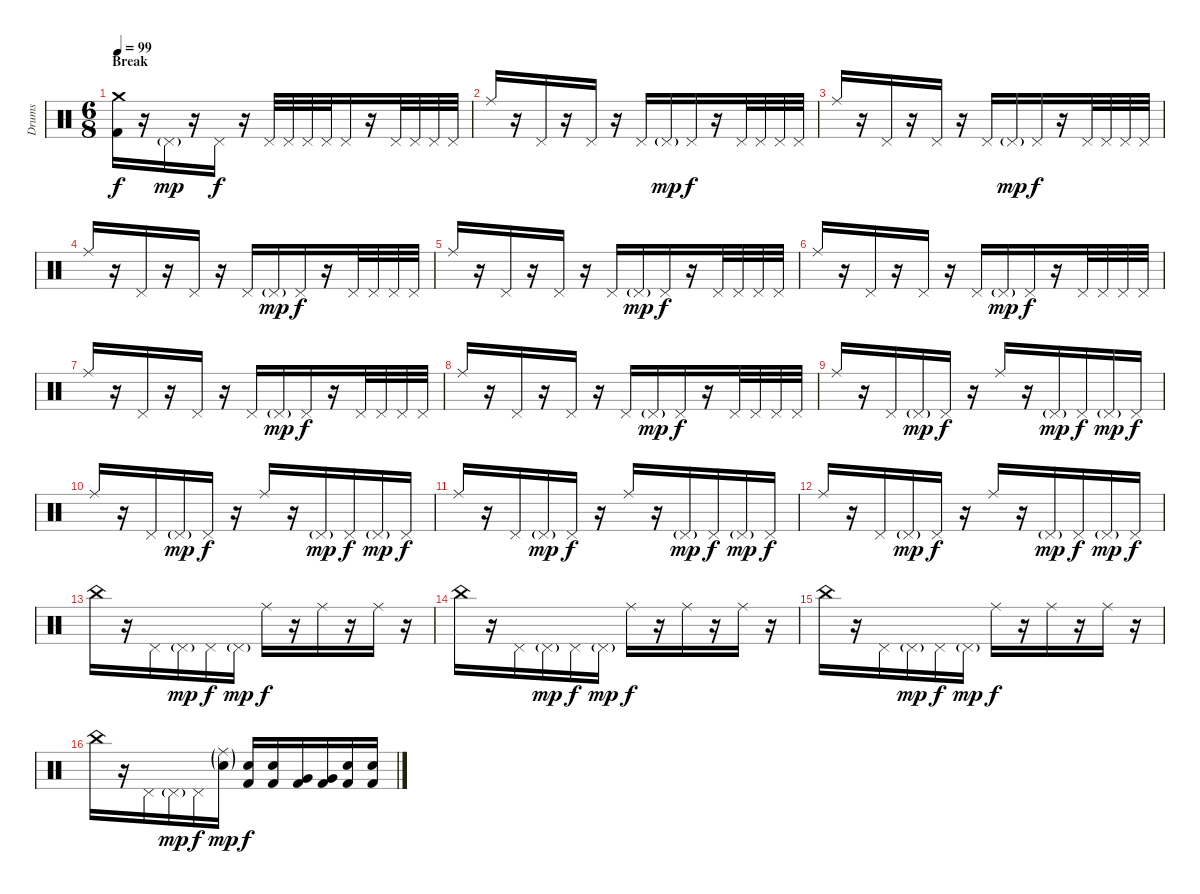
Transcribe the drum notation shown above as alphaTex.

\track ("Drums" "Drums") {instrument percussion}
\staff {score}
\articulation defaults
\ts (6 8)
\section ("" "Break")
\tempo 99
\clef neutral
\ks c
("Crash medium (hit)" "Kick (hit) 2").16{dy f} r.16 "Pedal Hi-Hat (hit)"{g}.16{dy mp} r.16 "Pedal Hi-Hat (hit)".16{dy f} r.16 "Pedal Hi-Hat (hit)".32 "Pedal Hi-Hat (hit)".32 "Pedal Hi-Hat (hit)".32 "Pedal Hi-Hat (hit)".32 "Pedal Hi-Hat (hit)".16 r.16 "Pedal Hi-Hat (hit)".32 "Pedal Hi-Hat (hit)".32 "Pedal Hi-Hat (hit)".32 "Pedal Hi-Hat (hit)".32 |
"Ride (middle)".16 r.16 "Pedal Hi-Hat (hit)".16 r.16 "Pedal Hi-Hat (hit)".16 r.16 "Pedal Hi-Hat (hit)".16 "Pedal Hi-Hat (hit)"{g}.16{dy mp} "Pedal Hi-Hat (hit)".16{dy f} r.16 "Pedal Hi-Hat (hit)".32 "Pedal Hi-Hat (hit)".32 "Pedal Hi-Hat (hit)".32 "Pedal Hi-Hat (hit)".32 |
"Ride (middle)".16 r.16 "Pedal Hi-Hat (hit)".16 r.16 "Pedal Hi-Hat (hit)".16 r.16 "Pedal Hi-Hat (hit)".16 "Pedal Hi-Hat (hit)"{g}.16{dy mp} "Pedal Hi-Hat (hit)".16{dy f} r.16 "Pedal Hi-Hat (hit)".32 "Pedal Hi-Hat (hit)".32 "Pedal Hi-Hat (hit)".32 "Pedal Hi-Hat (hit)".32 |
"Ride (middle)".16 r.16 "Pedal Hi-Hat (hit)".16 r.16 "Pedal Hi-Hat (hit)".16 r.16 "Pedal Hi-Hat (hit)".16 "Pedal Hi-Hat (hit)"{g}.16{dy mp} "Pedal Hi-Hat (hit)".16{dy f} r.16 "Pedal Hi-Hat (hit)".32 "Pedal Hi-Hat (hit)".32 "Pedal Hi-Hat (hit)".32 "Pedal Hi-Hat (hit)".32 |
"Ride (middle)".16 r.16 "Pedal Hi-Hat (hit)".16 r.16 "Pedal Hi-Hat (hit)".16 r.16 "Pedal Hi-Hat (hit)".16 "Pedal Hi-Hat (hit)"{g}.16{dy mp} "Pedal Hi-Hat (hit)".16{dy f} r.16 "Pedal Hi-Hat (hit)".32 "Pedal Hi-Hat (hit)".32 "Pedal Hi-Hat (hit)".32 "Pedal Hi-Hat (hit)".32 |
"Ride (middle)".16 r.16 "Pedal Hi-Hat (hit)".16 r.16 "Pedal Hi-Hat (hit)".16 r.16 "Pedal Hi-Hat (hit)".16 "Pedal Hi-Hat (hit)"{g}.16{dy mp} "Pedal Hi-Hat (hit)".16{dy f} r.16 "Pedal Hi-Hat (hit)".32 "Pedal Hi-Hat (hit)".32 "Pedal Hi-Hat (hit)".32 "Pedal Hi-Hat (hit)".32 |
"Ride (middle)".16 r.16 "Pedal Hi-Hat (hit)".16 r.16 "Pedal Hi-Hat (hit)".16 r.16 "Pedal Hi-Hat (hit)".16 "Pedal Hi-Hat (hit)"{g}.16{dy mp} "Pedal Hi-Hat (hit)".16{dy f} r.16 "Pedal Hi-Hat (hit)".32 "Pedal Hi-Hat (hit)".32 "Pedal Hi-Hat (hit)".32 "Pedal Hi-Hat (hit)".32 |
"Ride (middle)".16 r.16 "Pedal Hi-Hat (hit)".16 r.16 "Pedal Hi-Hat (hit)".16 r.16 "Pedal Hi-Hat (hit)".16 "Pedal Hi-Hat (hit)"{g}.16{dy mp} "Pedal Hi-Hat (hit)".16{dy f} r.16 "Pedal Hi-Hat (hit)".32 "Pedal Hi-Hat (hit)".32 "Pedal Hi-Hat (hit)".32 "Pedal Hi-Hat (hit)".32 |
"Ride (middle)".16 r.16 "Pedal Hi-Hat (hit)".16 "Pedal Hi-Hat (hit)"{g}.16{dy mp} "Pedal Hi-Hat (hit)".16{dy f} r.16 "Ride (middle)".16 r.16 "Pedal Hi-Hat (hit)"{g}.16{dy mp} "Pedal Hi-Hat (hit)".16{dy f} "Pedal Hi-Hat (hit)"{g}.16{dy mp} "Pedal Hi-Hat (hit)".16{dy f} |
"Ride (middle)".16 r.16 "Pedal Hi-Hat (hit)".16 "Pedal Hi-Hat (hit)"{g}.16{dy mp} "Pedal Hi-Hat (hit)".16{dy f} r.16 "Ride (middle)".16 r.16 "Pedal Hi-Hat (hit)"{g}.16{dy mp} "Pedal Hi-Hat (hit)".16{dy f} "Pedal Hi-Hat (hit)"{g}.16{dy mp} "Pedal Hi-Hat (hit)".16{dy f} |
"Ride (middle)".16 r.16 "Pedal Hi-Hat (hit)".16 "Pedal Hi-Hat (hit)"{g}.16{dy mp} "Pedal Hi-Hat (hit)".16{dy f} r.16 "Ride (middle)".16 r.16 "Pedal Hi-Hat (hit)"{g}.16{dy mp} "Pedal Hi-Hat (hit)".16{dy f} "Pedal Hi-Hat (hit)"{g}.16{dy mp} "Pedal Hi-Hat (hit)".16{dy f} |
"Ride (middle)".16 r.16 "Pedal Hi-Hat (hit)".16 "Pedal Hi-Hat (hit)"{g}.16{dy mp} "Pedal Hi-Hat (hit)".16{dy f} r.16 "Ride (middle)".16 r.16 "Pedal Hi-Hat (hit)"{g}.16{dy mp} "Pedal Hi-Hat (hit)".16{dy f} "Pedal Hi-Hat (hit)"{g}.16{dy mp} "Pedal Hi-Hat (hit)".16{dy f} |
"China (hit)".16 r.16 "Pedal Hi-Hat (hit)".16 "Pedal Hi-Hat (hit)"{g}.16{dy mp} "Pedal Hi-Hat (hit)".16{dy f} "Pedal Hi-Hat (hit)"{g}.16{dy mp} "Ride (middle)".16{dy f} r.16 "Ride (middle)".16 r.16 "Ride (middle)".16 r.16 |
"China (hit)".16 r.16 "Pedal Hi-Hat (hit)".16 "Pedal Hi-Hat (hit)"{g}.16{dy mp} "Pedal Hi-Hat (hit)".16{dy f} "Pedal Hi-Hat (hit)"{g}.16{dy mp} "Ride (middle)".16{dy f} r.16 "Ride (middle)".16 r.16 "Ride (middle)".16 r.16 |
"China (hit)".16 r.16 "Pedal Hi-Hat (hit)".16 "Pedal Hi-Hat (hit)"{g}.16{dy mp} "Pedal Hi-Hat (hit)".16{dy f} "Pedal Hi-Hat (hit)"{g}.16{dy mp} "Ride (middle)".16{dy f} r.16 "Ride (middle)".16 r.16 "Ride (middle)".16 r.16 |
"China (hit)".16 r.16 "Pedal Hi-Hat (hit)".16 "Pedal Hi-Hat (hit)"{g}.16{dy mp} "Pedal Hi-Hat (hit)".16{dy f} ("Ride (middle)"{g} "Electric Snare (hit)"{g}).16{dy mp} ("Electric Snare (hit)" "Kick (hit) 2").16{dy f} ("Electric Snare (hit)" "Kick (hit) 2").16 ("Very Low Tom (hit)" "Kick (hit) 2").16 ("Very Low Tom (hit)" "Kick (hit) 2").16 ("Electric Snare (hit)" "Kick (hit) 2").16 ("Electric Snare (hit)" "Kick (hit) 2").16
